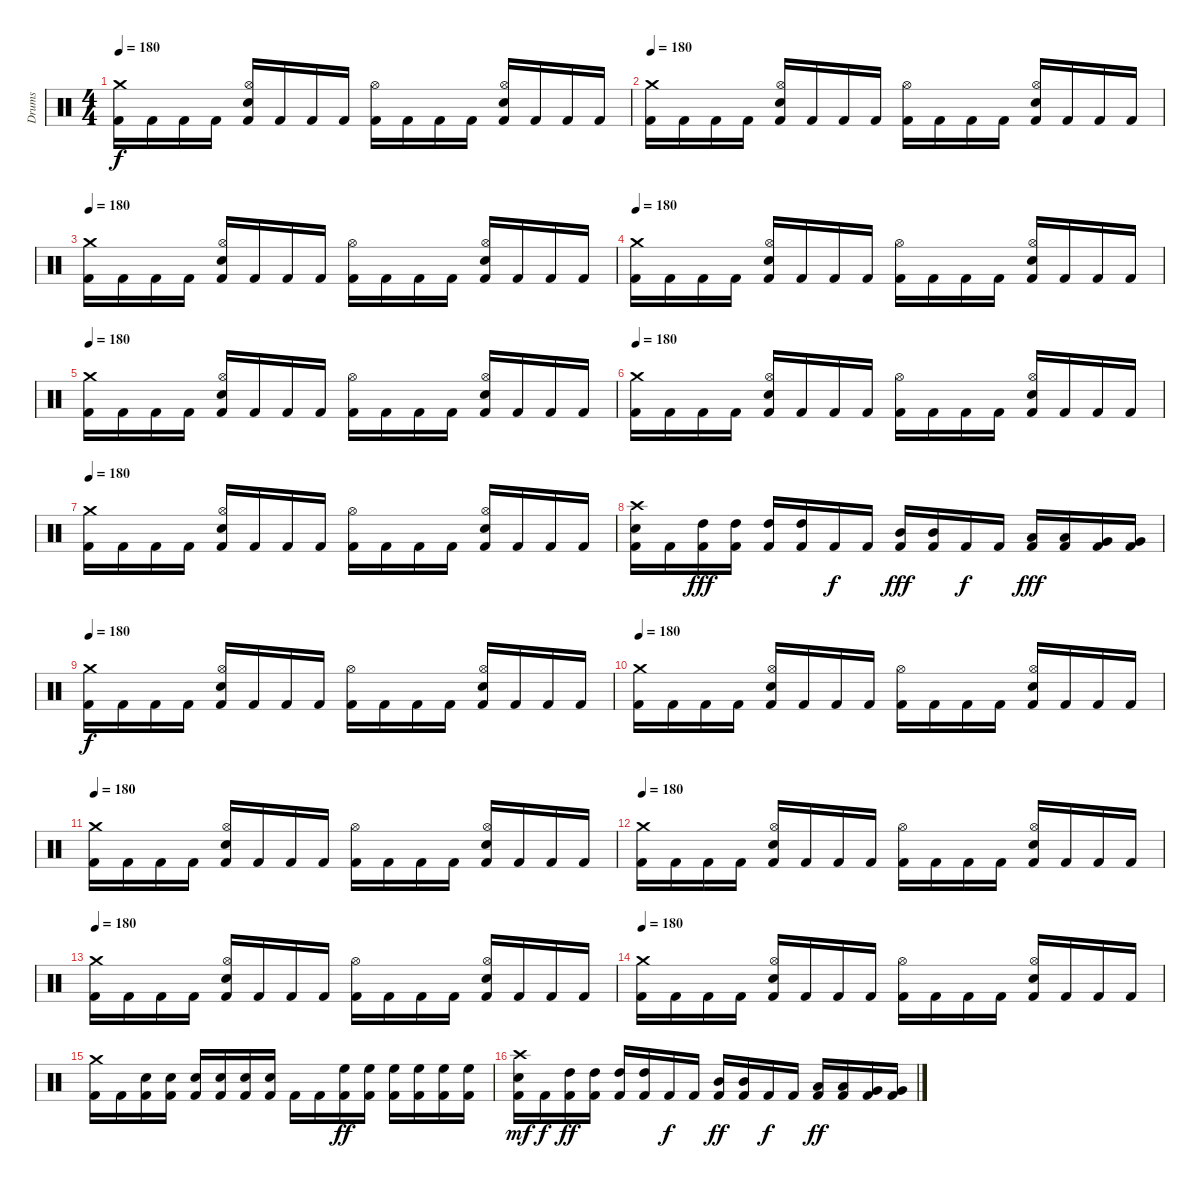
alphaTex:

\track ("Drums" "Drums") {instrument percussion}
\staff {score}
\articulation defaults
\ts (4 4)
\tempo 180
\clef neutral
\ks c
("Crash medium (hit)" "Kick (hit) 2").16{dy f} "Kick (hit) 2".16 "Kick (hit) 2".16 "Kick (hit) 2".16 ("Hi-Hat (open)" "Electric Snare (hit)" "Kick (hit) 2").16 "Kick (hit) 2".16 "Kick (hit) 2".16 "Kick (hit) 2".16 ("Hi-Hat (open)" "Kick (hit) 2").16 "Kick (hit) 2".16 "Kick (hit) 2".16 "Kick (hit) 2".16 ("Hi-Hat (open)" "Electric Snare (hit)" "Kick (hit) 2").16 "Kick (hit) 2".16 "Kick (hit) 2".16 "Kick (hit) 2".16 |
\tempo 180
("Crash medium (hit)" "Kick (hit) 2").16 "Kick (hit) 2".16 "Kick (hit) 2".16 "Kick (hit) 2".16 ("Hi-Hat (open)" "Electric Snare (hit)" "Kick (hit) 2").16 "Kick (hit) 2".16 "Kick (hit) 2".16 "Kick (hit) 2".16 ("Hi-Hat (open)" "Kick (hit) 2").16 "Kick (hit) 2".16 "Kick (hit) 2".16 "Kick (hit) 2".16 ("Hi-Hat (open)" "Electric Snare (hit)" "Kick (hit) 2").16 "Kick (hit) 2".16 "Kick (hit) 2".16 "Kick (hit) 2".16 |
\tempo 180
("Crash medium (hit)" "Kick (hit) 2").16 "Kick (hit) 2".16 "Kick (hit) 2".16 "Kick (hit) 2".16 ("Hi-Hat (open)" "Electric Snare (hit)" "Kick (hit) 2").16 "Kick (hit) 2".16 "Kick (hit) 2".16 "Kick (hit) 2".16 ("Hi-Hat (open)" "Kick (hit) 2").16 "Kick (hit) 2".16 "Kick (hit) 2".16 "Kick (hit) 2".16 ("Hi-Hat (open)" "Electric Snare (hit)" "Kick (hit) 2").16 "Kick (hit) 2".16 "Kick (hit) 2".16 "Kick (hit) 2".16 |
\tempo 180
("Crash medium (hit)" "Kick (hit) 2").16 "Kick (hit) 2".16 "Kick (hit) 2".16 "Kick (hit) 2".16 ("Hi-Hat (open)" "Electric Snare (hit)" "Kick (hit) 2").16 "Kick (hit) 2".16 "Kick (hit) 2".16 "Kick (hit) 2".16 ("Hi-Hat (open)" "Kick (hit) 2").16 "Kick (hit) 2".16 "Kick (hit) 2".16 "Kick (hit) 2".16 ("Hi-Hat (open)" "Electric Snare (hit)" "Kick (hit) 2").16 "Kick (hit) 2".16 "Kick (hit) 2".16 "Kick (hit) 2".16 |
\tempo 180
("Crash medium (hit)" "Kick (hit) 2").16 "Kick (hit) 2".16 "Kick (hit) 2".16 "Kick (hit) 2".16 ("Hi-Hat (open)" "Electric Snare (hit)" "Kick (hit) 2").16 "Kick (hit) 2".16 "Kick (hit) 2".16 "Kick (hit) 2".16 ("Hi-Hat (open)" "Kick (hit) 2").16 "Kick (hit) 2".16 "Kick (hit) 2".16 "Kick (hit) 2".16 ("Hi-Hat (open)" "Electric Snare (hit)" "Kick (hit) 2").16 "Kick (hit) 2".16 "Kick (hit) 2".16 "Kick (hit) 2".16 |
\tempo 180
("Crash medium (hit)" "Kick (hit) 2").16 "Kick (hit) 2".16 "Kick (hit) 2".16 "Kick (hit) 2".16 ("Hi-Hat (open)" "Electric Snare (hit)" "Kick (hit) 2").16 "Kick (hit) 2".16 "Kick (hit) 2".16 "Kick (hit) 2".16 ("Hi-Hat (open)" "Kick (hit) 2").16 "Kick (hit) 2".16 "Kick (hit) 2".16 "Kick (hit) 2".16 ("Hi-Hat (open)" "Electric Snare (hit)" "Kick (hit) 2").16 "Kick (hit) 2".16 "Kick (hit) 2".16 "Kick (hit) 2".16 |
\tempo 180
("Crash medium (hit)" "Kick (hit) 2").16 "Kick (hit) 2".16 "Kick (hit) 2".16 "Kick (hit) 2".16 ("Hi-Hat (open)" "Electric Snare (hit)" "Kick (hit) 2").16 "Kick (hit) 2".16 "Kick (hit) 2".16 "Kick (hit) 2".16 ("Hi-Hat (open)" "Kick (hit) 2").16 "Kick (hit) 2".16 "Kick (hit) 2".16 "Kick (hit) 2".16 ("Hi-Hat (open)" "Electric Snare (hit)" "Kick (hit) 2").16 "Kick (hit) 2".16 "Kick (hit) 2".16 "Kick (hit) 2".16 |
("Crash high (hit)" "Electric Snare (hit)" "Kick (hit) 2").16 "Kick (hit) 2".16 ("High Tom (hit)" "Kick (hit) 2").16{dy fff} ("High Tom (hit)" "Kick (hit) 2").16 ("High Tom (hit)" "Kick (hit) 2").16 ("High Tom (hit)" "Kick (hit) 2").16 "Kick (hit) 2".16{dy f} "Kick (hit) 2".16 ("Mid Tom (hit)" "Kick (hit) 2").16{dy fff} ("Mid Tom (hit)" "Kick (hit) 2").16 "Kick (hit) 2".16{dy f} "Kick (hit) 2".16 ("Low Tom (hit)" "Kick (hit) 2").16{dy fff} ("Low Tom (hit)" "Kick (hit) 2").16 ("Very Low Tom (hit)" "Kick (hit) 2").16 ("Very Low Tom (hit)" "Kick (hit) 2").16 |
\tempo 180
("Crash medium (hit)" "Kick (hit) 2").16{dy f} "Kick (hit) 2".16 "Kick (hit) 2".16 "Kick (hit) 2".16 ("Hi-Hat (open)" "Electric Snare (hit)" "Kick (hit) 2").16 "Kick (hit) 2".16 "Kick (hit) 2".16 "Kick (hit) 2".16 ("Hi-Hat (open)" "Kick (hit) 2").16 "Kick (hit) 2".16 "Kick (hit) 2".16 "Kick (hit) 2".16 ("Hi-Hat (open)" "Electric Snare (hit)" "Kick (hit) 2").16 "Kick (hit) 2".16 "Kick (hit) 2".16 "Kick (hit) 2".16 |
\tempo 180
("Crash medium (hit)" "Kick (hit) 2").16 "Kick (hit) 2".16 "Kick (hit) 2".16 "Kick (hit) 2".16 ("Hi-Hat (open)" "Electric Snare (hit)" "Kick (hit) 2").16 "Kick (hit) 2".16 "Kick (hit) 2".16 "Kick (hit) 2".16 ("Hi-Hat (open)" "Kick (hit) 2").16 "Kick (hit) 2".16 "Kick (hit) 2".16 "Kick (hit) 2".16 ("Hi-Hat (open)" "Electric Snare (hit)" "Kick (hit) 2").16 "Kick (hit) 2".16 "Kick (hit) 2".16 "Kick (hit) 2".16 |
\tempo 180
("Crash medium (hit)" "Kick (hit) 2").16 "Kick (hit) 2".16 "Kick (hit) 2".16 "Kick (hit) 2".16 ("Hi-Hat (open)" "Electric Snare (hit)" "Kick (hit) 2").16 "Kick (hit) 2".16 "Kick (hit) 2".16 "Kick (hit) 2".16 ("Hi-Hat (open)" "Kick (hit) 2").16 "Kick (hit) 2".16 "Kick (hit) 2".16 "Kick (hit) 2".16 ("Hi-Hat (open)" "Electric Snare (hit)" "Kick (hit) 2").16 "Kick (hit) 2".16 "Kick (hit) 2".16 "Kick (hit) 2".16 |
\tempo 180
("Crash medium (hit)" "Kick (hit) 2").16 "Kick (hit) 2".16 "Kick (hit) 2".16 "Kick (hit) 2".16 ("Hi-Hat (open)" "Electric Snare (hit)" "Kick (hit) 2").16 "Kick (hit) 2".16 "Kick (hit) 2".16 "Kick (hit) 2".16 ("Hi-Hat (open)" "Kick (hit) 2").16 "Kick (hit) 2".16 "Kick (hit) 2".16 "Kick (hit) 2".16 ("Hi-Hat (open)" "Electric Snare (hit)" "Kick (hit) 2").16 "Kick (hit) 2".16 "Kick (hit) 2".16 "Kick (hit) 2".16 |
\tempo 180
("Crash medium (hit)" "Kick (hit) 2").16 "Kick (hit) 2".16 "Kick (hit) 2".16 "Kick (hit) 2".16 ("Hi-Hat (open)" "Electric Snare (hit)" "Kick (hit) 2").16 "Kick (hit) 2".16 "Kick (hit) 2".16 "Kick (hit) 2".16 ("Hi-Hat (open)" "Kick (hit) 2").16 "Kick (hit) 2".16 "Kick (hit) 2".16 "Kick (hit) 2".16 ("Hi-Hat (open)" "Electric Snare (hit)" "Kick (hit) 2").16 "Kick (hit) 2".16 "Kick (hit) 2".16 "Kick (hit) 2".16 |
\tempo 180
("Crash medium (hit)" "Kick (hit) 2").16 "Kick (hit) 2".16 "Kick (hit) 2".16 "Kick (hit) 2".16 ("Hi-Hat (open)" "Electric Snare (hit)" "Kick (hit) 2").16 "Kick (hit) 2".16 "Kick (hit) 2".16 "Kick (hit) 2".16 ("Hi-Hat (open)" "Kick (hit) 2").16 "Kick (hit) 2".16 "Kick (hit) 2".16 "Kick (hit) 2".16 ("Hi-Hat (open)" "Electric Snare (hit)" "Kick (hit) 2").16 "Kick (hit) 2".16 "Kick (hit) 2".16 "Kick (hit) 2".16 |
("Crash medium (hit)" "Kick (hit) 2").16 "Kick (hit) 2".16 ("Electric Snare (hit)" "Kick (hit) 2").16 ("Electric Snare (hit)" "Kick (hit) 2").16 ("Electric Snare (hit)" "Kick (hit) 2").16 ("Electric Snare (hit)" "Kick (hit) 2").16 ("Electric Snare (hit)" "Kick (hit) 2").16 ("Electric Snare (hit)" "Kick (hit) 2").16 "Kick (hit) 2".16 "Kick (hit) 2".16 ("High Floor Tom (hit)" "Kick (hit) 2").16{dy ff} ("High Floor Tom (hit)" "Kick (hit) 2").16 ("High Floor Tom (hit)" "Kick (hit) 2").16 ("High Floor Tom (hit)" "Kick (hit) 2").16 ("High Floor Tom (hit)" "Kick (hit) 2").16 ("High Floor Tom (hit)" "Kick (hit) 2").16 |
("Crash high (hit)" "Electric Snare (hit)" "Kick (hit) 2").16{dy mf} "Kick (hit) 2".16{dy f} ("High Tom (hit)" "Kick (hit) 2").16{dy ff} ("High Tom (hit)" "Kick (hit) 2").16 ("High Tom (hit)" "Kick (hit) 2").16 ("High Tom (hit)" "Kick (hit) 2").16 "Kick (hit) 2".16{dy f} "Kick (hit) 2".16 ("Mid Tom (hit)" "Kick (hit) 2").16{dy ff} ("Mid Tom (hit)" "Kick (hit) 2").16 "Kick (hit) 2".16{dy f} "Kick (hit) 2".16 ("Low Tom (hit)" "Kick (hit) 2").16{dy ff} ("Low Tom (hit)" "Kick (hit) 2").16 ("Very Low Tom (hit)" "Kick (hit) 2").16 ("Very Low Tom (hit)" "Kick (hit) 2").16
